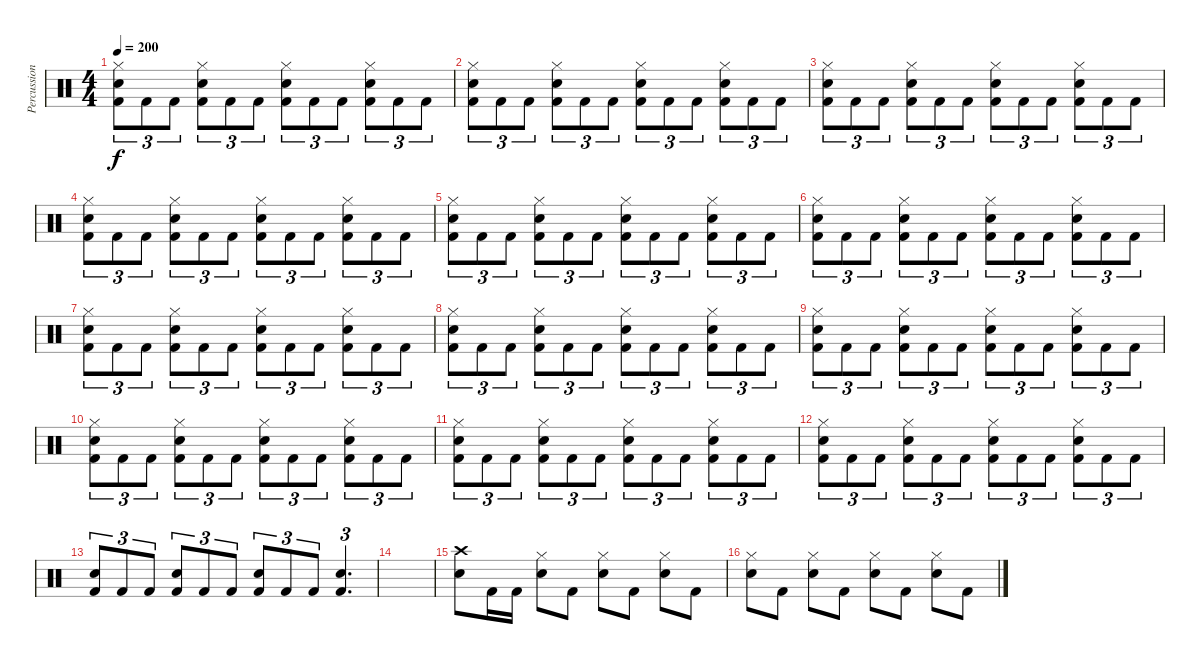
\track ("Percussion" "Percussion") {instrument percussion}
\staff {score}
\articulation defaults
\ts (4 4)
\tempo 200
\clef neutral
\ks c
("Hi-Hat (closed)" "Snare (hit) 2" "Kick (hit) 2").8{tu (3 2) dy f} "Kick (hit) 2".8{tu (3 2)} "Kick (hit) 2".8{tu (3 2)} ("Hi-Hat (closed)" "Snare (hit) 2" "Kick (hit) 2").8{tu (3 2)} "Kick (hit) 2".8{tu (3 2)} "Kick (hit) 2".8{tu (3 2)} ("Hi-Hat (closed)" "Snare (hit) 2" "Kick (hit) 2").8{tu (3 2)} "Kick (hit) 2".8{tu (3 2)} "Kick (hit) 2".8{tu (3 2)} ("Hi-Hat (closed)" "Snare (hit) 2" "Kick (hit) 2").8{tu (3 2)} "Kick (hit) 2".8{tu (3 2)} "Kick (hit) 2".8{tu (3 2)} |
("Hi-Hat (closed)" "Snare (hit) 2" "Kick (hit) 2").8{tu (3 2)} "Kick (hit) 2".8{tu (3 2)} "Kick (hit) 2".8{tu (3 2)} ("Hi-Hat (closed)" "Snare (hit) 2" "Kick (hit) 2").8{tu (3 2)} "Kick (hit) 2".8{tu (3 2)} "Kick (hit) 2".8{tu (3 2)} ("Hi-Hat (closed)" "Snare (hit) 2" "Kick (hit) 2").8{tu (3 2)} "Kick (hit) 2".8{tu (3 2)} "Kick (hit) 2".8{tu (3 2)} ("Hi-Hat (closed)" "Snare (hit) 2" "Kick (hit) 2").8{tu (3 2)} "Kick (hit) 2".8{tu (3 2)} "Kick (hit) 2".8{tu (3 2)} |
("Hi-Hat (closed)" "Snare (hit) 2" "Kick (hit) 2").8{tu (3 2)} "Kick (hit) 2".8{tu (3 2)} "Kick (hit) 2".8{tu (3 2)} ("Hi-Hat (closed)" "Snare (hit) 2" "Kick (hit) 2").8{tu (3 2)} "Kick (hit) 2".8{tu (3 2)} "Kick (hit) 2".8{tu (3 2)} ("Hi-Hat (closed)" "Snare (hit) 2" "Kick (hit) 2").8{tu (3 2)} "Kick (hit) 2".8{tu (3 2)} "Kick (hit) 2".8{tu (3 2)} ("Hi-Hat (closed)" "Snare (hit) 2" "Kick (hit) 2").8{tu (3 2)} "Kick (hit) 2".8{tu (3 2)} "Kick (hit) 2".8{tu (3 2)} |
("Hi-Hat (closed)" "Snare (hit) 2" "Kick (hit) 2").8{tu (3 2)} "Kick (hit) 2".8{tu (3 2)} "Kick (hit) 2".8{tu (3 2)} ("Hi-Hat (closed)" "Snare (hit) 2" "Kick (hit) 2").8{tu (3 2)} "Kick (hit) 2".8{tu (3 2)} "Kick (hit) 2".8{tu (3 2)} ("Hi-Hat (closed)" "Snare (hit) 2" "Kick (hit) 2").8{tu (3 2)} "Kick (hit) 2".8{tu (3 2)} "Kick (hit) 2".8{tu (3 2)} ("Hi-Hat (closed)" "Snare (hit) 2" "Kick (hit) 2").8{tu (3 2)} "Kick (hit) 2".8{tu (3 2)} "Kick (hit) 2".8{tu (3 2)} |
("Hi-Hat (closed)" "Snare (hit) 2" "Kick (hit) 2").8{tu (3 2)} "Kick (hit) 2".8{tu (3 2)} "Kick (hit) 2".8{tu (3 2)} ("Hi-Hat (closed)" "Snare (hit) 2" "Kick (hit) 2").8{tu (3 2)} "Kick (hit) 2".8{tu (3 2)} "Kick (hit) 2".8{tu (3 2)} ("Hi-Hat (closed)" "Snare (hit) 2" "Kick (hit) 2").8{tu (3 2)} "Kick (hit) 2".8{tu (3 2)} "Kick (hit) 2".8{tu (3 2)} ("Hi-Hat (closed)" "Snare (hit) 2" "Kick (hit) 2").8{tu (3 2)} "Kick (hit) 2".8{tu (3 2)} "Kick (hit) 2".8{tu (3 2)} |
("Hi-Hat (closed)" "Snare (hit) 2" "Kick (hit) 2").8{tu (3 2)} "Kick (hit) 2".8{tu (3 2)} "Kick (hit) 2".8{tu (3 2)} ("Hi-Hat (closed)" "Snare (hit) 2" "Kick (hit) 2").8{tu (3 2)} "Kick (hit) 2".8{tu (3 2)} "Kick (hit) 2".8{tu (3 2)} ("Hi-Hat (closed)" "Snare (hit) 2" "Kick (hit) 2").8{tu (3 2)} "Kick (hit) 2".8{tu (3 2)} "Kick (hit) 2".8{tu (3 2)} ("Hi-Hat (closed)" "Snare (hit) 2" "Kick (hit) 2").8{tu (3 2)} "Kick (hit) 2".8{tu (3 2)} "Kick (hit) 2".8{tu (3 2)} |
("Hi-Hat (closed)" "Snare (hit) 2" "Kick (hit) 2").8{tu (3 2)} "Kick (hit) 2".8{tu (3 2)} "Kick (hit) 2".8{tu (3 2)} ("Hi-Hat (closed)" "Snare (hit) 2" "Kick (hit) 2").8{tu (3 2)} "Kick (hit) 2".8{tu (3 2)} "Kick (hit) 2".8{tu (3 2)} ("Hi-Hat (closed)" "Snare (hit) 2" "Kick (hit) 2").8{tu (3 2)} "Kick (hit) 2".8{tu (3 2)} "Kick (hit) 2".8{tu (3 2)} ("Hi-Hat (closed)" "Snare (hit) 2" "Kick (hit) 2").8{tu (3 2)} "Kick (hit) 2".8{tu (3 2)} "Kick (hit) 2".8{tu (3 2)} |
("Hi-Hat (closed)" "Snare (hit) 2" "Kick (hit) 2").8{tu (3 2)} "Kick (hit) 2".8{tu (3 2)} "Kick (hit) 2".8{tu (3 2)} ("Hi-Hat (closed)" "Snare (hit) 2" "Kick (hit) 2").8{tu (3 2)} "Kick (hit) 2".8{tu (3 2)} "Kick (hit) 2".8{tu (3 2)} ("Hi-Hat (closed)" "Snare (hit) 2" "Kick (hit) 2").8{tu (3 2)} "Kick (hit) 2".8{tu (3 2)} "Kick (hit) 2".8{tu (3 2)} ("Hi-Hat (closed)" "Snare (hit) 2" "Kick (hit) 2").8{tu (3 2)} "Kick (hit) 2".8{tu (3 2)} "Kick (hit) 2".8{tu (3 2)} |
("Hi-Hat (closed)" "Snare (hit) 2" "Kick (hit) 2").8{tu (3 2)} "Kick (hit) 2".8{tu (3 2)} "Kick (hit) 2".8{tu (3 2)} ("Hi-Hat (closed)" "Snare (hit) 2" "Kick (hit) 2").8{tu (3 2)} "Kick (hit) 2".8{tu (3 2)} "Kick (hit) 2".8{tu (3 2)} ("Hi-Hat (closed)" "Snare (hit) 2" "Kick (hit) 2").8{tu (3 2)} "Kick (hit) 2".8{tu (3 2)} "Kick (hit) 2".8{tu (3 2)} ("Hi-Hat (closed)" "Snare (hit) 2" "Kick (hit) 2").8{tu (3 2)} "Kick (hit) 2".8{tu (3 2)} "Kick (hit) 2".8{tu (3 2)} |
("Hi-Hat (closed)" "Snare (hit) 2" "Kick (hit) 2").8{tu (3 2)} "Kick (hit) 2".8{tu (3 2)} "Kick (hit) 2".8{tu (3 2)} ("Hi-Hat (closed)" "Snare (hit) 2" "Kick (hit) 2").8{tu (3 2)} "Kick (hit) 2".8{tu (3 2)} "Kick (hit) 2".8{tu (3 2)} ("Hi-Hat (closed)" "Snare (hit) 2" "Kick (hit) 2").8{tu (3 2)} "Kick (hit) 2".8{tu (3 2)} "Kick (hit) 2".8{tu (3 2)} ("Hi-Hat (closed)" "Snare (hit) 2" "Kick (hit) 2").8{tu (3 2)} "Kick (hit) 2".8{tu (3 2)} "Kick (hit) 2".8{tu (3 2)} |
("Hi-Hat (closed)" "Snare (hit) 2" "Kick (hit) 2").8{tu (3 2)} "Kick (hit) 2".8{tu (3 2)} "Kick (hit) 2".8{tu (3 2)} ("Hi-Hat (closed)" "Snare (hit) 2" "Kick (hit) 2").8{tu (3 2)} "Kick (hit) 2".8{tu (3 2)} "Kick (hit) 2".8{tu (3 2)} ("Hi-Hat (closed)" "Snare (hit) 2" "Kick (hit) 2").8{tu (3 2)} "Kick (hit) 2".8{tu (3 2)} "Kick (hit) 2".8{tu (3 2)} ("Hi-Hat (closed)" "Snare (hit) 2" "Kick (hit) 2").8{tu (3 2)} "Kick (hit) 2".8{tu (3 2)} "Kick (hit) 2".8{tu (3 2)} |
("Hi-Hat (closed)" "Snare (hit) 2" "Kick (hit) 2").8{tu (3 2)} "Kick (hit) 2".8{tu (3 2)} "Kick (hit) 2".8{tu (3 2)} ("Hi-Hat (closed)" "Snare (hit) 2" "Kick (hit) 2").8{tu (3 2)} "Kick (hit) 2".8{tu (3 2)} "Kick (hit) 2".8{tu (3 2)} ("Hi-Hat (closed)" "Snare (hit) 2" "Kick (hit) 2").8{tu (3 2)} "Kick (hit) 2".8{tu (3 2)} "Kick (hit) 2".8{tu (3 2)} ("Hi-Hat (closed)" "Snare (hit) 2" "Kick (hit) 2").8{tu (3 2)} "Kick (hit) 2".8{tu (3 2)} "Kick (hit) 2".8{tu (3 2)} |
("Snare (hit) 2" "Kick (hit) 2").8{tu (3 2)} "Kick (hit) 2".8{tu (3 2)} "Kick (hit) 2".8{tu (3 2)} ("Snare (hit) 2" "Kick (hit) 2").8{tu (3 2)} "Kick (hit) 2".8{tu (3 2)} "Kick (hit) 2".8{tu (3 2)} ("Snare (hit) 2" "Kick (hit) 2").8{tu (3 2)} "Kick (hit) 2".8{tu (3 2)} "Kick (hit) 2".8{tu (3 2)} ("Snare (hit) 2" "Kick (hit) 2").4{d tu (3 2)} |
|
("Crash high (hit)" "Snare (hit) 2").8 "Kick (hit) 2".16 "Kick (hit) 2".16 ("Hi-Hat (closed)" "Snare (hit) 2").8 "Kick (hit) 2".8 ("Hi-Hat (closed)" "Snare (hit) 2").8 "Kick (hit) 2".8 ("Hi-Hat (closed)" "Snare (hit) 2").8 "Kick (hit) 2".8 |
("Hi-Hat (closed)" "Snare (hit) 2").8 "Kick (hit) 2".8 ("Hi-Hat (closed)" "Snare (hit) 2").8 "Kick (hit) 2".8 ("Hi-Hat (closed)" "Snare (hit) 2").8 "Kick (hit) 2".8 ("Hi-Hat (closed)" "Snare (hit) 2").8 "Kick (hit) 2".8
